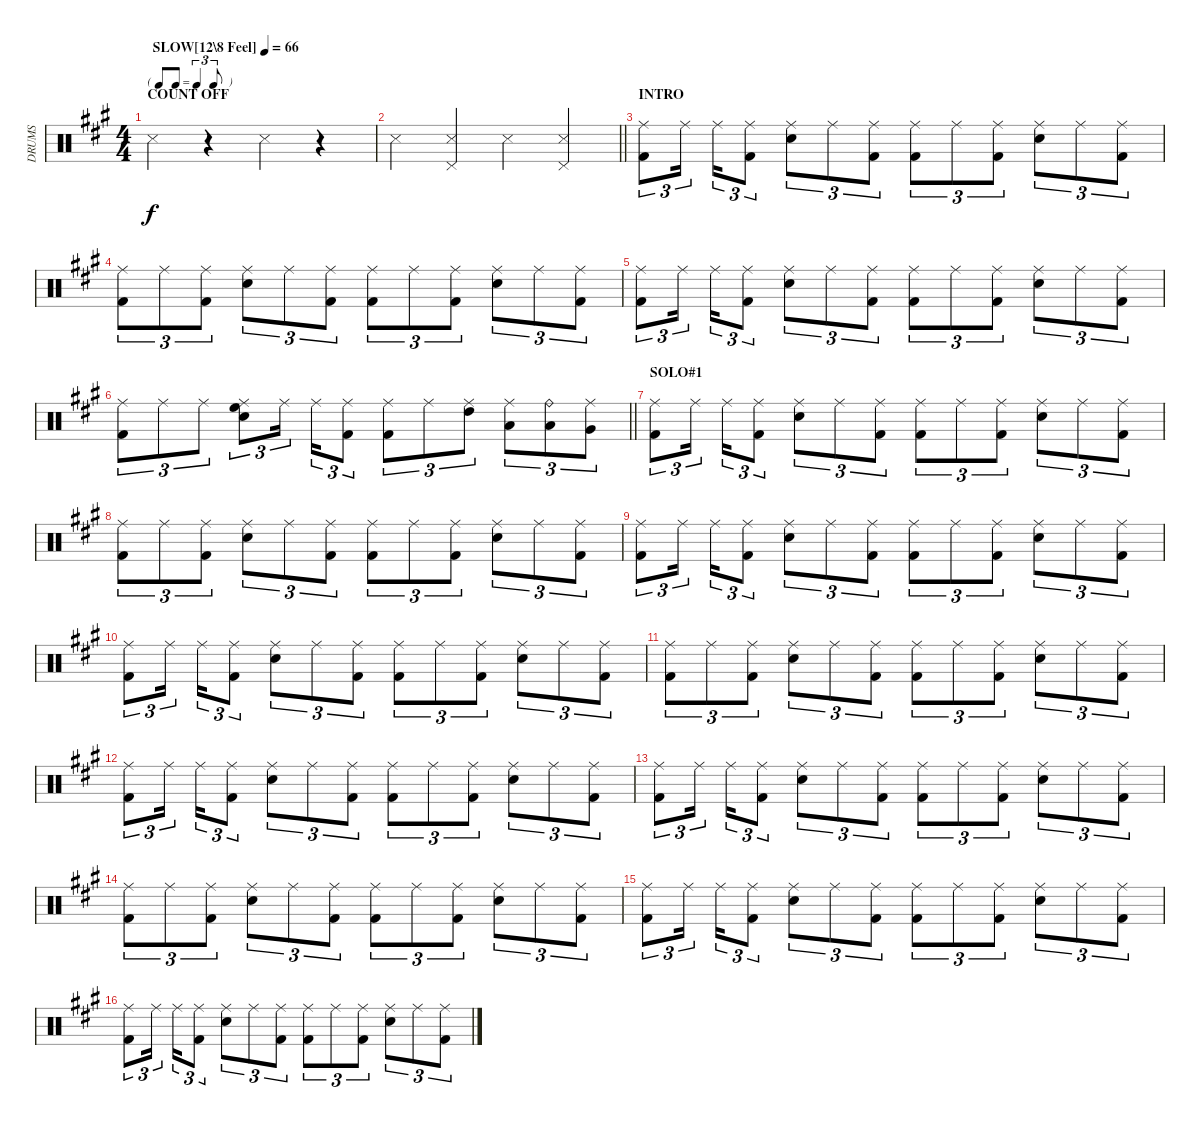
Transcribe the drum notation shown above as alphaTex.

\track ("DRUMS" "DRUMS") {instrument percussion}
\staff {score}
\articulation defaults
\ts (4 4)
\tf triplet8th
\section ("" "COUNT OFF")
\tempo (66 "SLOW[12\\8 Feel]")
\clef neutral
\ks a "Snare (side stick) 3".4{dy f}
r.4 "Snare (side stick) 3".4 r.4 |
\barLineRight lightlight "Snare (side stick) 3".4
("Snare (side stick) 3" "Pedal Hi-Hat (hit)").4 "Snare (side stick) 3".4 ("Snare (side stick) 3" "Pedal Hi-Hat (hit)").4 |
\section ("" "INTRO")
("Kick (hit) 2" "Ride (middle)").8{tu (3 2)} "Ride (middle)".16{tu (3 2) beam splitsecondary} "Ride (middle)".16{tu (3 2)} ("Ride (middle)" "Kick (hit) 2").8{tu (3 2)} ("Snare (hit) 2" "Ride (middle)").8{tu (3 2)} "Ride (middle)".8{tu (3 2)} ("Ride (middle)" "Kick (hit) 2").8{tu (3 2)} ("Ride (middle)" "Kick (hit) 2").8{tu (3 2)} "Ride (middle)".8{tu (3 2)} ("Ride (middle)" "Kick (hit) 2").8{tu (3 2)} ("Snare (hit) 2" "Ride (middle)").8{tu (3 2)} "Ride (middle)".8{tu (3 2)} ("Ride (middle)" "Kick (hit) 2").8{tu (3 2)} |
("Ride (middle)" "Kick (hit) 2").8{tu (3 2)} "Ride (middle)".8{tu (3 2)} ("Kick (hit) 2" "Ride (middle)").8{tu (3 2)} ("Snare (hit) 2" "Ride (middle)").8{tu (3 2)} "Ride (middle)".8{tu (3 2)} ("Ride (middle)" "Kick (hit) 2").8{tu (3 2)} ("Ride (middle)" "Kick (hit) 2").8{tu (3 2)} "Ride (middle)".8{tu (3 2)} ("Ride (middle)" "Kick (hit) 2").8{tu (3 2)} ("Snare (hit) 2" "Ride (middle)").8{tu (3 2)} "Ride (middle)".8{tu (3 2)} ("Ride (middle)" "Kick (hit) 2").8{tu (3 2)} |
("Kick (hit) 2" "Ride (middle)").8{tu (3 2)} "Ride (middle)".16{tu (3 2) beam splitsecondary} "Ride (middle)".16{tu (3 2)} ("Ride (middle)" "Kick (hit) 2").8{tu (3 2)} ("Snare (hit) 2" "Ride (middle)").8{tu (3 2)} "Ride (middle)".8{tu (3 2)} ("Ride (middle)" "Kick (hit) 2").8{tu (3 2)} ("Ride (middle)" "Kick (hit) 2").8{tu (3 2)} "Ride (middle)".8{tu (3 2)} ("Ride (middle)" "Kick (hit) 2").8{tu (3 2)} ("Snare (hit) 2" "Ride (middle)").8{tu (3 2)} "Ride (middle)".8{tu (3 2)} ("Ride (middle)" "Kick (hit) 2").8{tu (3 2)} |
\barLineRight lightlight
("Ride (middle)" "Kick (hit) 2").8{tu (3 2)} "Ride (middle)".8{tu (3 2)} "Ride (middle)".8{tu (3 2)} ("Ride (middle)" "Snare (hit) 2" "High Floor Tom (hit)").8{tu (3 2)} "Ride (middle)".16{tu (3 2) beam splitsecondary} "Ride (middle)".16{tu (3 2)} ("Kick (hit) 2" "Ride (middle)").8{tu (3 2)} ("Kick (hit) 2" "Ride (middle)").8{tu (3 2)} "Ride (middle)".8{tu (3 2)} ("High Tom (hit)" "Ride (middle)").8{tu (3 2)} ("Low Tom (hit)" "Ride (middle)").8{tu (3 2)} ("Ride (bell)" "Low Tom (hit)").8{tu (3 2)} ("Ride (middle)" "Very Low Tom (hit)").8{tu (3 2)} |
\section ("" "SOLO#1")
("Kick (hit) 2" "Ride (middle)").8{tu (3 2)} "Ride (middle)".16{tu (3 2) beam splitsecondary} "Ride (middle)".16{tu (3 2)} ("Ride (middle)" "Kick (hit) 2").8{tu (3 2)} ("Snare (hit) 2" "Ride (middle)").8{tu (3 2)} "Ride (middle)".8{tu (3 2)} ("Ride (middle)" "Kick (hit) 2").8{tu (3 2)} ("Ride (middle)" "Kick (hit) 2").8{tu (3 2)} "Ride (middle)".8{tu (3 2)} ("Ride (middle)" "Kick (hit) 2").8{tu (3 2)} ("Snare (hit) 2" "Ride (middle)").8{tu (3 2)} "Ride (middle)".8{tu (3 2)} ("Ride (middle)" "Kick (hit) 2").8{tu (3 2)} |
("Ride (middle)" "Kick (hit) 2").8{tu (3 2)} "Ride (middle)".8{tu (3 2)} ("Kick (hit) 2" "Ride (middle)").8{tu (3 2)} ("Snare (hit) 2" "Ride (middle)").8{tu (3 2)} "Ride (middle)".8{tu (3 2)} ("Ride (middle)" "Kick (hit) 2").8{tu (3 2)} ("Ride (middle)" "Kick (hit) 2").8{tu (3 2)} "Ride (middle)".8{tu (3 2)} ("Ride (middle)" "Kick (hit) 2").8{tu (3 2)} ("Snare (hit) 2" "Ride (middle)").8{tu (3 2)} "Ride (middle)".8{tu (3 2)} ("Ride (middle)" "Kick (hit) 2").8{tu (3 2)} |
("Kick (hit) 2" "Ride (middle)").8{tu (3 2)} "Ride (middle)".16{tu (3 2) beam splitsecondary} "Ride (middle)".16{tu (3 2)} ("Ride (middle)" "Kick (hit) 2").8{tu (3 2)} ("Snare (hit) 2" "Ride (middle)").8{tu (3 2)} "Ride (middle)".8{tu (3 2)} ("Ride (middle)" "Kick (hit) 2").8{tu (3 2)} ("Ride (middle)" "Kick (hit) 2").8{tu (3 2)} "Ride (middle)".8{tu (3 2)} ("Ride (middle)" "Kick (hit) 2").8{tu (3 2)} ("Snare (hit) 2" "Ride (middle)").8{tu (3 2)} "Ride (middle)".8{tu (3 2)} ("Ride (middle)" "Kick (hit) 2").8{tu (3 2)} |
("Kick (hit) 2" "Ride (middle)").8{tu (3 2)} "Ride (middle)".16{tu (3 2) beam splitsecondary} "Ride (middle)".16{tu (3 2)} ("Ride (middle)" "Kick (hit) 2").8{tu (3 2)} ("Snare (hit) 2" "Ride (middle)").8{tu (3 2)} "Ride (middle)".8{tu (3 2)} ("Ride (middle)" "Kick (hit) 2").8{tu (3 2)} ("Ride (middle)" "Kick (hit) 2").8{tu (3 2)} "Ride (middle)".8{tu (3 2)} ("Ride (middle)" "Kick (hit) 2").8{tu (3 2)} ("Snare (hit) 2" "Ride (middle)").8{tu (3 2)} "Ride (middle)".8{tu (3 2)} ("Ride (middle)" "Kick (hit) 2").8{tu (3 2)} |
("Ride (middle)" "Kick (hit) 2").8{tu (3 2)} "Ride (middle)".8{tu (3 2)} ("Kick (hit) 2" "Ride (middle)").8{tu (3 2)} ("Snare (hit) 2" "Ride (middle)").8{tu (3 2)} "Ride (middle)".8{tu (3 2)} ("Ride (middle)" "Kick (hit) 2").8{tu (3 2)} ("Ride (middle)" "Kick (hit) 2").8{tu (3 2)} "Ride (middle)".8{tu (3 2)} ("Ride (middle)" "Kick (hit) 2").8{tu (3 2)} ("Snare (hit) 2" "Ride (middle)").8{tu (3 2)} "Ride (middle)".8{tu (3 2)} ("Ride (middle)" "Kick (hit) 2").8{tu (3 2)} |
("Kick (hit) 2" "Ride (middle)").8{tu (3 2)} "Ride (middle)".16{tu (3 2) beam splitsecondary} "Ride (middle)".16{tu (3 2)} ("Ride (middle)" "Kick (hit) 2").8{tu (3 2)} ("Snare (hit) 2" "Ride (middle)").8{tu (3 2)} "Ride (middle)".8{tu (3 2)} ("Ride (middle)" "Kick (hit) 2").8{tu (3 2)} ("Ride (middle)" "Kick (hit) 2").8{tu (3 2)} "Ride (middle)".8{tu (3 2)} ("Ride (middle)" "Kick (hit) 2").8{tu (3 2)} ("Snare (hit) 2" "Ride (middle)").8{tu (3 2)} "Ride (middle)".8{tu (3 2)} ("Ride (middle)" "Kick (hit) 2").8{tu (3 2)} |
("Kick (hit) 2" "Ride (middle)").8{tu (3 2)} "Ride (middle)".16{tu (3 2) beam splitsecondary} "Ride (middle)".16{tu (3 2)} ("Ride (middle)" "Kick (hit) 2").8{tu (3 2)} ("Snare (hit) 2" "Ride (middle)").8{tu (3 2)} "Ride (middle)".8{tu (3 2)} ("Ride (middle)" "Kick (hit) 2").8{tu (3 2)} ("Ride (middle)" "Kick (hit) 2").8{tu (3 2)} "Ride (middle)".8{tu (3 2)} ("Ride (middle)" "Kick (hit) 2").8{tu (3 2)} ("Snare (hit) 2" "Ride (middle)").8{tu (3 2)} "Ride (middle)".8{tu (3 2)} ("Ride (middle)" "Kick (hit) 2").8{tu (3 2)} |
("Ride (middle)" "Kick (hit) 2").8{tu (3 2)} "Ride (middle)".8{tu (3 2)} ("Kick (hit) 2" "Ride (middle)").8{tu (3 2)} ("Snare (hit) 2" "Ride (middle)").8{tu (3 2)} "Ride (middle)".8{tu (3 2)} ("Ride (middle)" "Kick (hit) 2").8{tu (3 2)} ("Ride (middle)" "Kick (hit) 2").8{tu (3 2)} "Ride (middle)".8{tu (3 2)} ("Ride (middle)" "Kick (hit) 2").8{tu (3 2)} ("Snare (hit) 2" "Ride (middle)").8{tu (3 2)} "Ride (middle)".8{tu (3 2)} ("Ride (middle)" "Kick (hit) 2").8{tu (3 2)} |
("Kick (hit) 2" "Ride (middle)").8{tu (3 2)} "Ride (middle)".16{tu (3 2) beam splitsecondary} "Ride (middle)".16{tu (3 2)} ("Ride (middle)" "Kick (hit) 2").8{tu (3 2)} ("Snare (hit) 2" "Ride (middle)").8{tu (3 2)} "Ride (middle)".8{tu (3 2)} ("Ride (middle)" "Kick (hit) 2").8{tu (3 2)} ("Ride (middle)" "Kick (hit) 2").8{tu (3 2)} "Ride (middle)".8{tu (3 2)} ("Ride (middle)" "Kick (hit) 2").8{tu (3 2)} ("Snare (hit) 2" "Ride (middle)").8{tu (3 2)} "Ride (middle)".8{tu (3 2)} ("Ride (middle)" "Kick (hit) 2").8{tu (3 2)} |
("Kick (hit) 2" "Ride (middle)").8{tu (3 2)} "Ride (middle)".16{tu (3 2) beam splitsecondary} "Ride (middle)".16{tu (3 2)} ("Ride (middle)" "Kick (hit) 2").8{tu (3 2)} ("Snare (hit) 2" "Ride (middle)").8{tu (3 2)} "Ride (middle)".8{tu (3 2)} ("Ride (middle)" "Kick (hit) 2").8{tu (3 2)} ("Ride (middle)" "Kick (hit) 2").8{tu (3 2)} "Ride (middle)".8{tu (3 2)} ("Ride (middle)" "Kick (hit) 2").8{tu (3 2)} ("Snare (hit) 2" "Ride (middle)").8{tu (3 2)} "Ride (middle)".8{tu (3 2)} ("Ride (middle)" "Kick (hit) 2").8{tu (3 2)}
